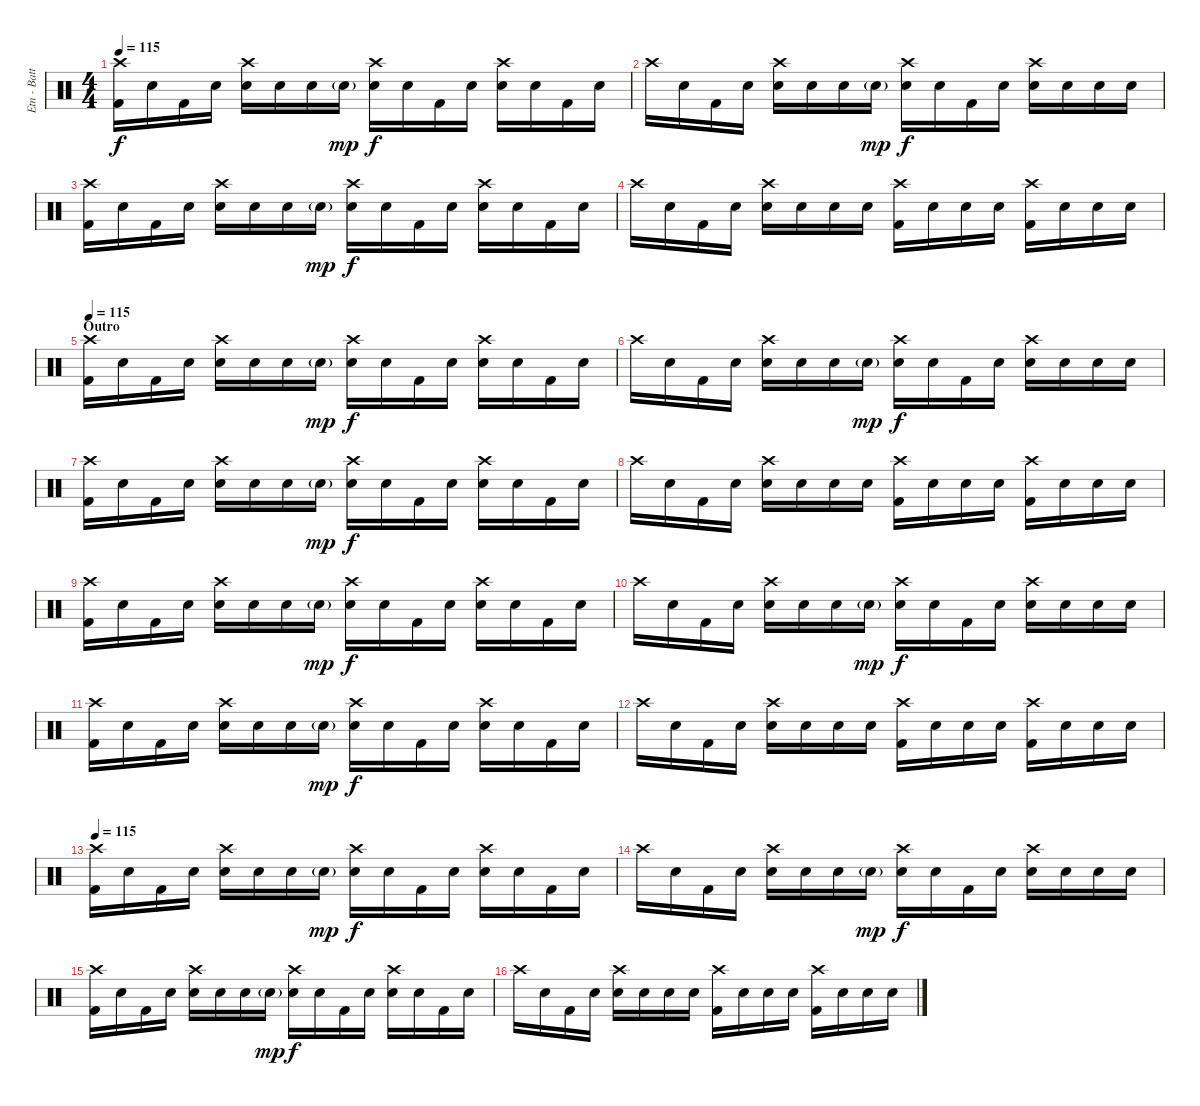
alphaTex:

\track ("Etn - Batterie" "Etn - Batt") {instrument percussion}
\staff {score}
\articulation defaults
\ts (4 4)
\tempo 115
\clef neutral
\ks c
("Crash high (hit)" "Kick (hit) 2").16{dy f} "Snare (hit)".16 "Kick (hit) 2".16 "Snare (hit)".16 ("Crash high (hit)" "Electric Snare (hit)").16 "Snare (hit)".16 "Snare (hit)".16 "Electric Snare (hit)"{g}.16{dy mp} ("Crash high (hit)" "Electric Snare (hit)").16{dy f} "Snare (hit)".16 "Kick (hit) 2".16 "Snare (hit)".16 ("Crash high (hit)" "Electric Snare (hit)").16 "Snare (hit)".16 "Kick (hit) 2".16 "Snare (hit)".16 |
"Crash high (hit)".16 "Snare (hit)".16 "Kick (hit) 2".16 "Snare (hit)".16 ("Crash high (hit)" "Electric Snare (hit)").16 "Snare (hit)".16 "Snare (hit)".16 "Electric Snare (hit)"{g}.16{dy mp} ("Crash high (hit)" "Electric Snare (hit)").16{dy f} "Snare (hit)".16 "Kick (hit) 2".16 "Snare (hit)".16 ("Crash high (hit)" "Electric Snare (hit)").16 "Snare (hit)".16 "Electric Snare (hit)".16 "Electric Snare (hit)".16 |
("Crash high (hit)" "Kick (hit) 2").16 "Snare (hit)".16 "Kick (hit) 2".16 "Snare (hit)".16 ("Crash high (hit)" "Electric Snare (hit)").16 "Snare (hit)".16 "Snare (hit)".16 "Electric Snare (hit)"{g}.16{dy mp} ("Crash high (hit)" "Electric Snare (hit)").16{dy f} "Snare (hit)".16 "Kick (hit) 2".16 "Snare (hit)".16 ("Crash high (hit)" "Electric Snare (hit)").16 "Snare (hit)".16 "Kick (hit) 2".16 "Snare (hit)".16 |
"Crash high (hit)".16 "Snare (hit)".16 "Kick (hit) 2".16 "Snare (hit)".16 ("Crash high (hit)" "Electric Snare (hit)").16 "Snare (hit)".16 "Snare (hit)".16 "Snare (hit)".16 ("Crash high (hit)" "Kick (hit) 2").16 "Snare (hit)".16 "Electric Snare (hit)".16 "Snare (hit)".16 ("Crash high (hit)" "Kick (hit) 2").16 "Snare (hit)".16 "Electric Snare (hit)".16 "Snare (hit)".16 |
\section ("" "Outro")
\tempo 115
("Crash high (hit)" "Kick (hit) 2").16{volume 16 balance 8} "Snare (hit)".16 "Kick (hit) 2".16 "Snare (hit)".16 ("Crash high (hit)" "Electric Snare (hit)").16 "Snare (hit)".16 "Snare (hit)".16 "Electric Snare (hit)"{g}.16{dy mp} ("Crash high (hit)" "Electric Snare (hit)").16{dy f} "Snare (hit)".16 "Kick (hit) 2".16 "Snare (hit)".16 ("Crash high (hit)" "Electric Snare (hit)").16 "Snare (hit)".16 "Kick (hit) 2".16 "Snare (hit)".16 |
"Crash high (hit)".16 "Snare (hit)".16 "Kick (hit) 2".16 "Snare (hit)".16 ("Crash high (hit)" "Electric Snare (hit)").16 "Snare (hit)".16 "Snare (hit)".16 "Electric Snare (hit)"{g}.16{dy mp} ("Crash high (hit)" "Electric Snare (hit)").16{dy f} "Snare (hit)".16 "Kick (hit) 2".16 "Snare (hit)".16 ("Crash high (hit)" "Electric Snare (hit)").16 "Snare (hit)".16 "Electric Snare (hit)".16 "Electric Snare (hit)".16 |
("Crash high (hit)" "Kick (hit) 2").16 "Snare (hit)".16 "Kick (hit) 2".16 "Snare (hit)".16 ("Crash high (hit)" "Electric Snare (hit)").16 "Snare (hit)".16 "Snare (hit)".16 "Electric Snare (hit)"{g}.16{dy mp} ("Crash high (hit)" "Electric Snare (hit)").16{dy f} "Snare (hit)".16 "Kick (hit) 2".16 "Snare (hit)".16 ("Crash high (hit)" "Electric Snare (hit)").16 "Snare (hit)".16 "Kick (hit) 2".16 "Snare (hit)".16 |
"Crash high (hit)".16 "Snare (hit)".16 "Kick (hit) 2".16 "Snare (hit)".16 ("Crash high (hit)" "Electric Snare (hit)").16 "Snare (hit)".16 "Snare (hit)".16 "Snare (hit)".16 ("Crash high (hit)" "Kick (hit) 2").16 "Snare (hit)".16 "Electric Snare (hit)".16 "Snare (hit)".16 ("Crash high (hit)" "Kick (hit) 2").16 "Snare (hit)".16 "Electric Snare (hit)".16 "Snare (hit)".16 |
("Crash high (hit)" "Kick (hit) 2").16 "Snare (hit)".16 "Kick (hit) 2".16 "Snare (hit)".16 ("Crash high (hit)" "Electric Snare (hit)").16 "Snare (hit)".16 "Snare (hit)".16 "Electric Snare (hit)"{g}.16{dy mp} ("Crash high (hit)" "Electric Snare (hit)").16{dy f} "Snare (hit)".16 "Kick (hit) 2".16 "Snare (hit)".16 ("Crash high (hit)" "Electric Snare (hit)").16 "Snare (hit)".16 "Kick (hit) 2".16 "Snare (hit)".16 |
"Crash high (hit)".16 "Snare (hit)".16 "Kick (hit) 2".16 "Snare (hit)".16 ("Crash high (hit)" "Electric Snare (hit)").16 "Snare (hit)".16 "Snare (hit)".16 "Electric Snare (hit)"{g}.16{dy mp} ("Crash high (hit)" "Electric Snare (hit)").16{dy f} "Snare (hit)".16 "Kick (hit) 2".16 "Snare (hit)".16 ("Crash high (hit)" "Electric Snare (hit)").16 "Snare (hit)".16 "Electric Snare (hit)".16 "Electric Snare (hit)".16 |
("Crash high (hit)" "Kick (hit) 2").16 "Snare (hit)".16 "Kick (hit) 2".16 "Snare (hit)".16 ("Crash high (hit)" "Electric Snare (hit)").16 "Snare (hit)".16 "Snare (hit)".16 "Electric Snare (hit)"{g}.16{dy mp} ("Crash high (hit)" "Electric Snare (hit)").16{dy f} "Snare (hit)".16 "Kick (hit) 2".16 "Snare (hit)".16 ("Crash high (hit)" "Electric Snare (hit)").16 "Snare (hit)".16 "Kick (hit) 2".16 "Snare (hit)".16 |
"Crash high (hit)".16 "Snare (hit)".16 "Kick (hit) 2".16 "Snare (hit)".16 ("Crash high (hit)" "Electric Snare (hit)").16 "Snare (hit)".16 "Snare (hit)".16 "Snare (hit)".16 ("Crash high (hit)" "Kick (hit) 2").16 "Snare (hit)".16 "Electric Snare (hit)".16 "Snare (hit)".16 ("Crash high (hit)" "Kick (hit) 2").16 "Snare (hit)".16 "Electric Snare (hit)".16 "Snare (hit)".16 |
\section ("" "")
\tempo 115
("Crash high (hit)" "Kick (hit) 2").16{volume 16 balance 8} "Snare (hit)".16 "Kick (hit) 2".16 "Snare (hit)".16 ("Crash high (hit)" "Electric Snare (hit)").16 "Snare (hit)".16 "Snare (hit)".16 "Electric Snare (hit)"{g}.16{dy mp} ("Crash high (hit)" "Electric Snare (hit)").16{dy f} "Snare (hit)".16 "Kick (hit) 2".16 "Snare (hit)".16 ("Crash high (hit)" "Electric Snare (hit)").16 "Snare (hit)".16 "Kick (hit) 2".16 "Snare (hit)".16 |
"Crash high (hit)".16 "Snare (hit)".16 "Kick (hit) 2".16 "Snare (hit)".16 ("Crash high (hit)" "Electric Snare (hit)").16 "Snare (hit)".16 "Snare (hit)".16 "Electric Snare (hit)"{g}.16{dy mp} ("Crash high (hit)" "Electric Snare (hit)").16{dy f} "Snare (hit)".16 "Kick (hit) 2".16 "Snare (hit)".16 ("Crash high (hit)" "Electric Snare (hit)").16 "Snare (hit)".16 "Electric Snare (hit)".16 "Electric Snare (hit)".16 |
("Crash high (hit)" "Kick (hit) 2").16 "Snare (hit)".16 "Kick (hit) 2".16 "Snare (hit)".16 ("Crash high (hit)" "Electric Snare (hit)").16 "Snare (hit)".16 "Snare (hit)".16 "Electric Snare (hit)"{g}.16{dy mp} ("Crash high (hit)" "Electric Snare (hit)").16{dy f} "Snare (hit)".16 "Kick (hit) 2".16 "Snare (hit)".16 ("Crash high (hit)" "Electric Snare (hit)").16 "Snare (hit)".16 "Kick (hit) 2".16 "Snare (hit)".16 |
"Crash high (hit)".16 "Snare (hit)".16 "Kick (hit) 2".16 "Snare (hit)".16 ("Crash high (hit)" "Electric Snare (hit)").16 "Snare (hit)".16 "Snare (hit)".16 "Snare (hit)".16 ("Crash high (hit)" "Kick (hit) 2").16 "Snare (hit)".16 "Electric Snare (hit)".16 "Snare (hit)".16 ("Crash high (hit)" "Kick (hit) 2").16 "Snare (hit)".16 "Electric Snare (hit)".16 "Snare (hit)".16
